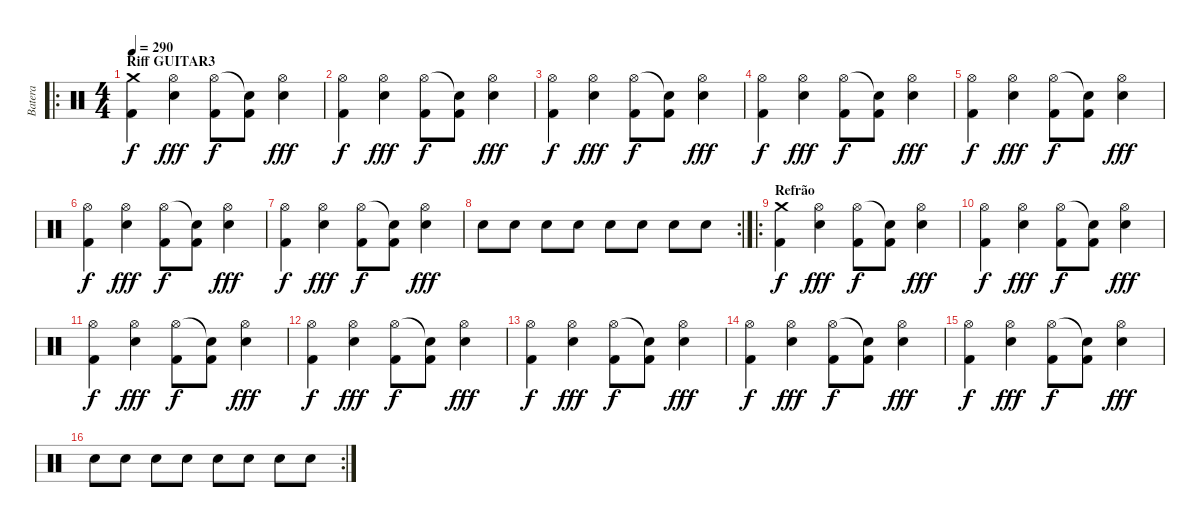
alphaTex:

\track ("Batera" "Batera") {instrument percussion}
\staff {score}
\articulation defaults
\ro
\ts (4 4)
\section ("" "Riff GUITAR3")
\tempo 290
\clef neutral
\ks c
("Crash medium (hit)" "Kick (hit) 2").4{dy f} ("Hi-Hat (open)" "Electric Snare (hit)").4{dy fff} ("Hi-Hat (open)" "Kick (hit) 2").8{dy f} ("Snare (hit)"{t} "Kick (hit) 2").8 ("Hi-Hat (open)" "Electric Snare (hit)").4{dy fff} |
("Hi-Hat (open)" "Kick (hit) 2").4{dy f} ("Hi-Hat (open)" "Electric Snare (hit)").4{dy fff} ("Hi-Hat (open)" "Kick (hit) 2").8{dy f} ("Snare (hit)"{t} "Kick (hit) 2").8 ("Hi-Hat (open)" "Electric Snare (hit)").4{dy fff} |
("Hi-Hat (open)" "Kick (hit) 2").4{dy f} ("Hi-Hat (open)" "Electric Snare (hit)").4{dy fff} ("Hi-Hat (open)" "Kick (hit) 2").8{dy f} ("Snare (hit)"{t} "Kick (hit) 2").8 ("Hi-Hat (open)" "Electric Snare (hit)").4{dy fff} |
("Hi-Hat (open)" "Kick (hit) 2").4{dy f} ("Hi-Hat (open)" "Electric Snare (hit)").4{dy fff} ("Hi-Hat (open)" "Kick (hit) 2").8{dy f} ("Snare (hit)"{t} "Kick (hit) 2").8 ("Hi-Hat (open)" "Electric Snare (hit)").4{dy fff} |
("Hi-Hat (open)" "Kick (hit) 2").4{dy f} ("Hi-Hat (open)" "Electric Snare (hit)").4{dy fff} ("Hi-Hat (open)" "Kick (hit) 2").8{dy f} ("Snare (hit)"{t} "Kick (hit) 2").8 ("Hi-Hat (open)" "Electric Snare (hit)").4{dy fff} |
("Hi-Hat (open)" "Kick (hit) 2").4{dy f} ("Hi-Hat (open)" "Electric Snare (hit)").4{dy fff} ("Hi-Hat (open)" "Kick (hit) 2").8{dy f} ("Snare (hit)"{t} "Kick (hit) 2").8 ("Hi-Hat (open)" "Electric Snare (hit)").4{dy fff} |
("Hi-Hat (open)" "Kick (hit) 2").4{dy f} ("Hi-Hat (open)" "Electric Snare (hit)").4{dy fff} ("Hi-Hat (open)" "Kick (hit) 2").8{dy f} ("Snare (hit)"{t} "Kick (hit) 2").8 ("Hi-Hat (open)" "Electric Snare (hit)").4{dy fff} |
\rc 2 "Electric Snare (hit)".8 "Electric Snare (hit)".8 "Electric Snare (hit)".8 "Electric Snare (hit)".8 "Electric Snare (hit)".8 "Electric Snare (hit)".8 "Electric Snare (hit)".8 "Electric Snare (hit)".8
|
\ro
\section ("" "Refrão")
("Crash medium (hit)" "Kick (hit) 2").4{dy f} ("Hi-Hat (open)" "Electric Snare (hit)").4{dy fff} ("Hi-Hat (open)" "Kick (hit) 2").8{dy f} ("Snare (hit)"{t} "Kick (hit) 2").8 ("Hi-Hat (open)" "Electric Snare (hit)").4{dy fff} |
("Hi-Hat (open)" "Kick (hit) 2").4{dy f} ("Hi-Hat (open)" "Electric Snare (hit)").4{dy fff} ("Hi-Hat (open)" "Kick (hit) 2").8{dy f} ("Snare (hit)"{t} "Kick (hit) 2").8 ("Hi-Hat (open)" "Electric Snare (hit)").4{dy fff} |
("Hi-Hat (open)" "Kick (hit) 2").4{dy f} ("Hi-Hat (open)" "Electric Snare (hit)").4{dy fff} ("Hi-Hat (open)" "Kick (hit) 2").8{dy f} ("Snare (hit)"{t} "Kick (hit) 2").8 ("Hi-Hat (open)" "Electric Snare (hit)").4{dy fff} |
("Hi-Hat (open)" "Kick (hit) 2").4{dy f} ("Hi-Hat (open)" "Electric Snare (hit)").4{dy fff} ("Hi-Hat (open)" "Kick (hit) 2").8{dy f} ("Snare (hit)"{t} "Kick (hit) 2").8 ("Hi-Hat (open)" "Electric Snare (hit)").4{dy fff} |
("Hi-Hat (open)" "Kick (hit) 2").4{dy f} ("Hi-Hat (open)" "Electric Snare (hit)").4{dy fff} ("Hi-Hat (open)" "Kick (hit) 2").8{dy f} ("Snare (hit)"{t} "Kick (hit) 2").8 ("Hi-Hat (open)" "Electric Snare (hit)").4{dy fff} |
("Hi-Hat (open)" "Kick (hit) 2").4{dy f} ("Hi-Hat (open)" "Electric Snare (hit)").4{dy fff} ("Hi-Hat (open)" "Kick (hit) 2").8{dy f} ("Snare (hit)"{t} "Kick (hit) 2").8 ("Hi-Hat (open)" "Electric Snare (hit)").4{dy fff} |
("Hi-Hat (open)" "Kick (hit) 2").4{dy f} ("Hi-Hat (open)" "Electric Snare (hit)").4{dy fff} ("Hi-Hat (open)" "Kick (hit) 2").8{dy f} ("Snare (hit)"{t} "Kick (hit) 2").8 ("Hi-Hat (open)" "Electric Snare (hit)").4{dy fff} |
\rc 2 "Electric Snare (hit)".8 "Electric Snare (hit)".8 "Electric Snare (hit)".8 "Electric Snare (hit)".8 "Electric Snare (hit)".8 "Electric Snare (hit)".8 "Electric Snare (hit)".8 "Electric Snare (hit)".8
